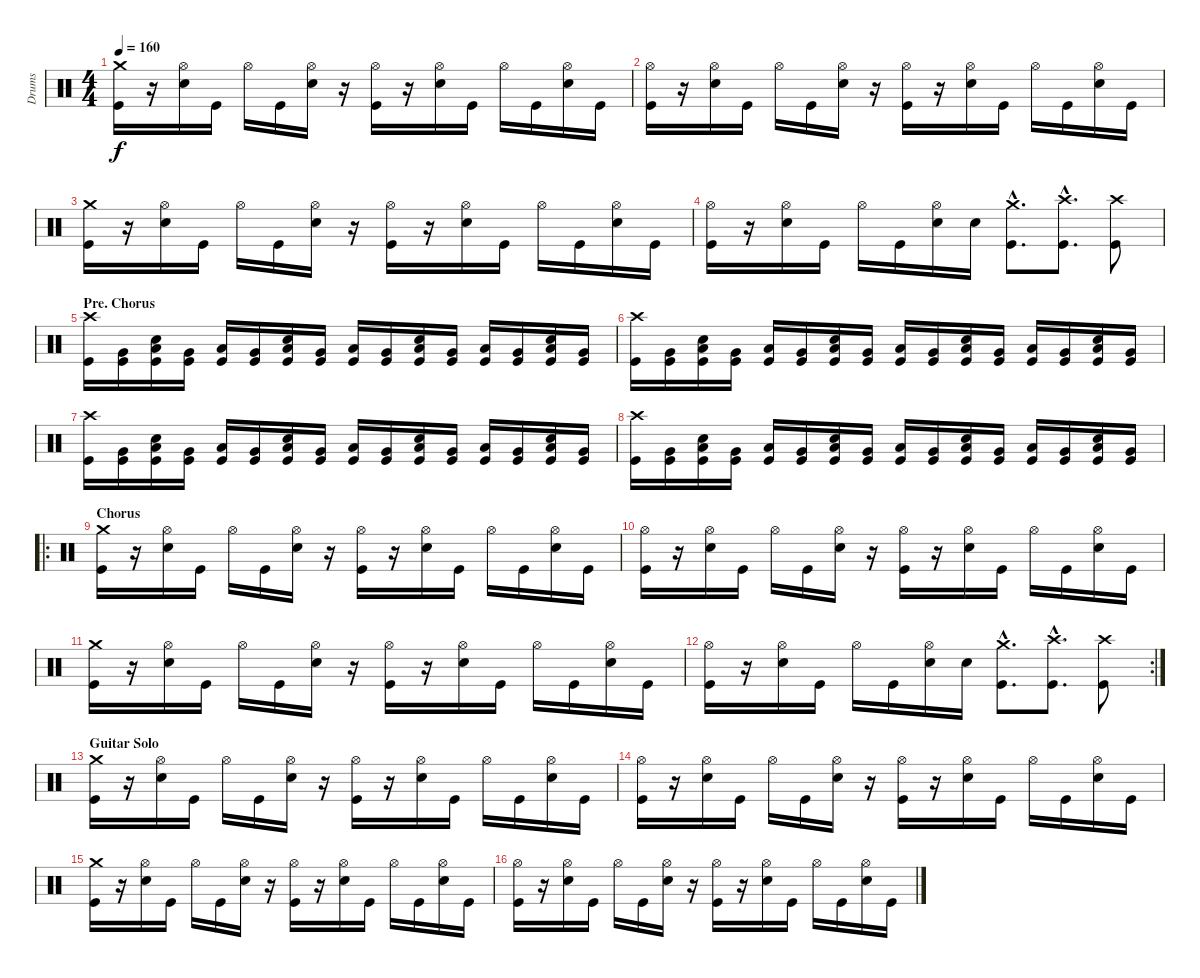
\track ("Drums" "Drums") {instrument percussion}
\staff {score}
\articulation defaults
\ts (4 4)
\tempo 160
\clef neutral
\ks c
("Crash medium (hit)" "Kick (hit)").16{dy f} r.16 ("Hi-Hat (open)" "Electric Snare (hit)").16 "Kick (hit)".16 "Hi-Hat (open)".16 "Kick (hit)".16 ("Hi-Hat (open)" "Electric Snare (hit)").16 r.16 ("Hi-Hat (open)" "Kick (hit)").16 r.16 ("Hi-Hat (open)" "Electric Snare (hit)").16 "Kick (hit)".16 "Hi-Hat (open)".16 "Kick (hit)".16 ("Hi-Hat (open)" "Electric Snare (hit)").16 "Kick (hit)".16 |
("Hi-Hat (open)" "Kick (hit)").16 r.16 ("Hi-Hat (open)" "Electric Snare (hit)").16 "Kick (hit)".16 "Hi-Hat (open)".16 "Kick (hit)".16 ("Hi-Hat (open)" "Electric Snare (hit)").16 r.16 ("Hi-Hat (open)" "Kick (hit)").16 r.16 ("Hi-Hat (open)" "Electric Snare (hit)").16 "Kick (hit)".16 "Hi-Hat (open)".16 "Kick (hit)".16 ("Hi-Hat (open)" "Electric Snare (hit)").16 "Kick (hit)".16 |
("Crash medium (hit)" "Kick (hit)").16 r.16 ("Hi-Hat (open)" "Electric Snare (hit)").16 "Kick (hit)".16 "Hi-Hat (open)".16 "Kick (hit)".16 ("Hi-Hat (open)" "Electric Snare (hit)").16 r.16 ("Hi-Hat (open)" "Kick (hit)").16 r.16 ("Hi-Hat (open)" "Electric Snare (hit)").16 "Kick (hit)".16 "Hi-Hat (open)".16 "Kick (hit)".16 ("Hi-Hat (open)" "Electric Snare (hit)").16 "Kick (hit)".16 |
("Hi-Hat (open)" "Kick (hit)").16 r.16 ("Hi-Hat (open)" "Electric Snare (hit)").16 "Kick (hit)".16 "Hi-Hat (open)".16 "Kick (hit)".16 ("Hi-Hat (open)" "Electric Snare (hit)").16 "Electric Snare (hit)".16 ("Crash medium (hit)"{hac} "Kick (hit)"{hac}).8{d} ("Crash high (hit)"{hac} "Kick (hit)"{hac}).8{d} ("Crash high (hit)" "Kick (hit)").8 |
\section ("" "Pre. Chorus")
("Crash high (hit)" "Kick (hit)").16 ("Very Low Tom (hit)" "Kick (hit)").16 ("Low Tom (hit)" "Electric Snare (hit)" "Kick (hit)").16 ("Very Low Tom (hit)" "Kick (hit)").16 ("Low Tom (hit)" "Kick (hit)").16 ("Very Low Tom (hit)" "Kick (hit)").16 ("Low Tom (hit)" "Electric Snare (hit)" "Kick (hit)").16 ("Very Low Tom (hit)" "Kick (hit)").16 ("Low Tom (hit)" "Kick (hit)").16 ("Very Low Tom (hit)" "Kick (hit)").16 ("Low Tom (hit)" "Electric Snare (hit)" "Kick (hit)").16 ("Very Low Tom (hit)" "Kick (hit)").16 ("Low Tom (hit)" "Kick (hit)").16 ("Very Low Tom (hit)" "Kick (hit)").16 ("Low Tom (hit)" "Electric Snare (hit)" "Kick (hit)").16 ("Very Low Tom (hit)" "Kick (hit)").16 |
("Crash high (hit)" "Kick (hit)").16 ("Very Low Tom (hit)" "Kick (hit)").16 ("Low Tom (hit)" "Electric Snare (hit)" "Kick (hit)").16 ("Very Low Tom (hit)" "Kick (hit)").16 ("Low Tom (hit)" "Kick (hit)").16 ("Very Low Tom (hit)" "Kick (hit)").16 ("Low Tom (hit)" "Electric Snare (hit)" "Kick (hit)").16 ("Very Low Tom (hit)" "Kick (hit)").16 ("Low Tom (hit)" "Kick (hit)").16 ("Very Low Tom (hit)" "Kick (hit)").16 ("Low Tom (hit)" "Electric Snare (hit)" "Kick (hit)").16 ("Very Low Tom (hit)" "Kick (hit)").16 ("Low Tom (hit)" "Kick (hit)").16 ("Very Low Tom (hit)" "Kick (hit)").16 ("Low Tom (hit)" "Electric Snare (hit)" "Kick (hit)").16 ("Very Low Tom (hit)" "Kick (hit)").16 |
("Crash high (hit)" "Kick (hit)").16 ("Very Low Tom (hit)" "Kick (hit)").16 ("Low Tom (hit)" "Electric Snare (hit)" "Kick (hit)").16 ("Very Low Tom (hit)" "Kick (hit)").16 ("Low Tom (hit)" "Kick (hit)").16 ("Very Low Tom (hit)" "Kick (hit)").16 ("Low Tom (hit)" "Electric Snare (hit)" "Kick (hit)").16 ("Very Low Tom (hit)" "Kick (hit)").16 ("Low Tom (hit)" "Kick (hit)").16 ("Very Low Tom (hit)" "Kick (hit)").16 ("Low Tom (hit)" "Electric Snare (hit)" "Kick (hit)").16 ("Very Low Tom (hit)" "Kick (hit)").16 ("Low Tom (hit)" "Kick (hit)").16 ("Very Low Tom (hit)" "Kick (hit)").16 ("Low Tom (hit)" "Electric Snare (hit)" "Kick (hit)").16 ("Very Low Tom (hit)" "Kick (hit)").16 |
("Crash high (hit)" "Kick (hit)").16 ("Very Low Tom (hit)" "Kick (hit)").16 ("Low Tom (hit)" "Electric Snare (hit)" "Kick (hit)").16 ("Very Low Tom (hit)" "Kick (hit)").16 ("Low Tom (hit)" "Kick (hit)").16 ("Very Low Tom (hit)" "Kick (hit)").16 ("Low Tom (hit)" "Electric Snare (hit)" "Kick (hit)").16 ("Very Low Tom (hit)" "Kick (hit)").16 ("Low Tom (hit)" "Kick (hit)").16 ("Very Low Tom (hit)" "Kick (hit)").16 ("Low Tom (hit)" "Electric Snare (hit)" "Kick (hit)").16 ("Very Low Tom (hit)" "Kick (hit)").16 ("Low Tom (hit)" "Kick (hit)").16 ("Very Low Tom (hit)" "Kick (hit)").16 ("Low Tom (hit)" "Electric Snare (hit)" "Kick (hit)").16 ("Very Low Tom (hit)" "Kick (hit)").16 |
\ro
\section ("" "Chorus")
("Crash medium (hit)" "Kick (hit)").16 r.16 ("Hi-Hat (open)" "Electric Snare (hit)").16 "Kick (hit)".16 "Hi-Hat (open)".16 "Kick (hit)".16 ("Hi-Hat (open)" "Electric Snare (hit)").16 r.16 ("Hi-Hat (open)" "Kick (hit)").16 r.16 ("Hi-Hat (open)" "Electric Snare (hit)").16 "Kick (hit)".16 "Hi-Hat (open)".16 "Kick (hit)".16 ("Hi-Hat (open)" "Electric Snare (hit)").16 "Kick (hit)".16 |
("Hi-Hat (open)" "Kick (hit)").16 r.16 ("Hi-Hat (open)" "Electric Snare (hit)").16 "Kick (hit)".16 "Hi-Hat (open)".16 "Kick (hit)".16 ("Hi-Hat (open)" "Electric Snare (hit)").16 r.16 ("Hi-Hat (open)" "Kick (hit)").16 r.16 ("Hi-Hat (open)" "Electric Snare (hit)").16 "Kick (hit)".16 "Hi-Hat (open)".16 "Kick (hit)".16 ("Hi-Hat (open)" "Electric Snare (hit)").16 "Kick (hit)".16 |
("Crash medium (hit)" "Kick (hit)").16 r.16 ("Hi-Hat (open)" "Electric Snare (hit)").16 "Kick (hit)".16 "Hi-Hat (open)".16 "Kick (hit)".16 ("Hi-Hat (open)" "Electric Snare (hit)").16 r.16 ("Hi-Hat (open)" "Kick (hit)").16 r.16 ("Hi-Hat (open)" "Electric Snare (hit)").16 "Kick (hit)".16 "Hi-Hat (open)".16 "Kick (hit)".16 ("Hi-Hat (open)" "Electric Snare (hit)").16 "Kick (hit)".16 |
\rc 2
("Hi-Hat (open)" "Kick (hit)").16 r.16 ("Hi-Hat (open)" "Electric Snare (hit)").16 "Kick (hit)".16 "Hi-Hat (open)".16 "Kick (hit)".16 ("Hi-Hat (open)" "Electric Snare (hit)").16 "Electric Snare (hit)".16 ("Crash medium (hit)"{hac} "Kick (hit)"{hac}).8{d} ("Crash high (hit)"{hac} "Kick (hit)"{hac}).8{d} ("Crash high (hit)" "Kick (hit)").8 |
\section ("" "Guitar Solo")
("Crash medium (hit)" "Kick (hit)").16 r.16 ("Hi-Hat (open)" "Electric Snare (hit)").16 "Kick (hit)".16 "Hi-Hat (open)".16 "Kick (hit)".16 ("Hi-Hat (open)" "Electric Snare (hit)").16 r.16 ("Hi-Hat (open)" "Kick (hit)").16 r.16 ("Hi-Hat (open)" "Electric Snare (hit)").16 "Kick (hit)".16 "Hi-Hat (open)".16 "Kick (hit)".16 ("Hi-Hat (open)" "Electric Snare (hit)").16 "Kick (hit)".16 |
("Hi-Hat (open)" "Kick (hit)").16 r.16 ("Hi-Hat (open)" "Electric Snare (hit)").16 "Kick (hit)".16 "Hi-Hat (open)".16 "Kick (hit)".16 ("Hi-Hat (open)" "Electric Snare (hit)").16 r.16 ("Hi-Hat (open)" "Kick (hit)").16 r.16 ("Hi-Hat (open)" "Electric Snare (hit)").16 "Kick (hit)".16 "Hi-Hat (open)".16 "Kick (hit)".16 ("Hi-Hat (open)" "Electric Snare (hit)").16 "Kick (hit)".16 |
("Crash medium (hit)" "Kick (hit)").16 r.16 ("Hi-Hat (open)" "Electric Snare (hit)").16 "Kick (hit)".16 "Hi-Hat (open)".16 "Kick (hit)".16 ("Hi-Hat (open)" "Electric Snare (hit)").16 r.16 ("Hi-Hat (open)" "Kick (hit)").16 r.16 ("Hi-Hat (open)" "Electric Snare (hit)").16 "Kick (hit)".16 "Hi-Hat (open)".16 "Kick (hit)".16 ("Hi-Hat (open)" "Electric Snare (hit)").16 "Kick (hit)".16 |
("Hi-Hat (open)" "Kick (hit)").16 r.16 ("Hi-Hat (open)" "Electric Snare (hit)").16 "Kick (hit)".16 "Hi-Hat (open)".16 "Kick (hit)".16 ("Hi-Hat (open)" "Electric Snare (hit)").16 r.16 ("Hi-Hat (open)" "Kick (hit)").16 r.16 ("Hi-Hat (open)" "Electric Snare (hit)").16 "Kick (hit)".16 "Hi-Hat (open)".16 "Kick (hit)".16 ("Hi-Hat (open)" "Electric Snare (hit)").16 "Kick (hit)".16
